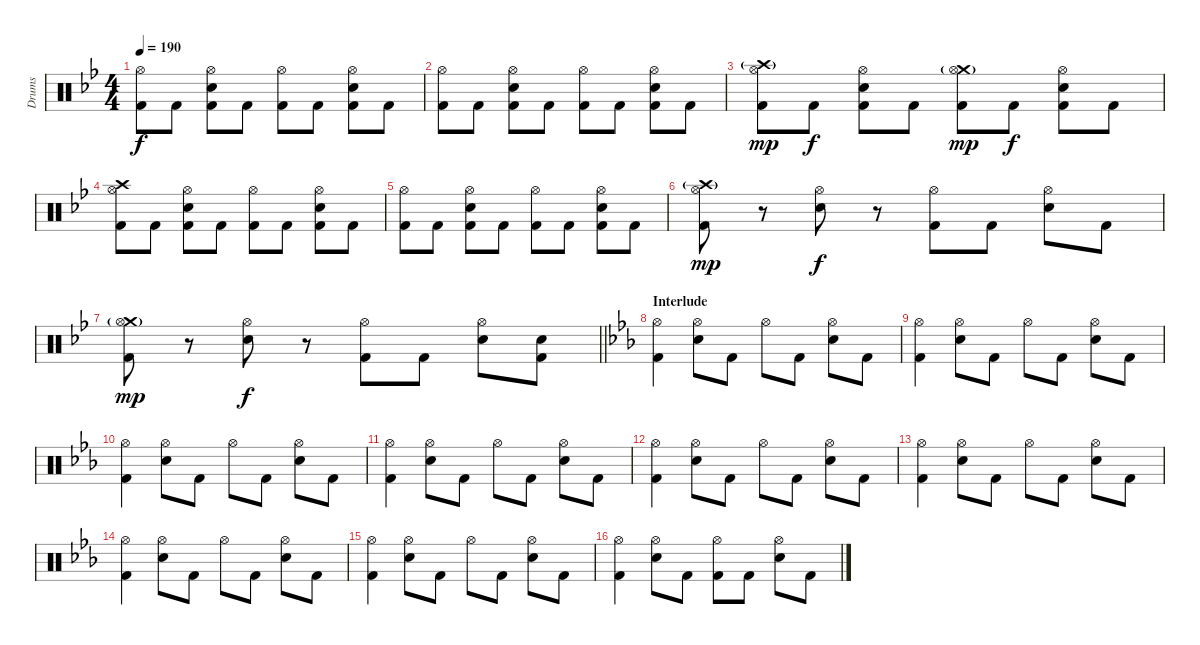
\track ("Drums" "Drums") {instrument percussion}
\staff {score}
\articulation defaults
\ts (4 4)
\tempo 190
\clef neutral
\ks gminor
("Hi-Hat (open)" "Kick (hit) 2").8{dy f} "Kick (hit) 2".8 ("Hi-Hat (open)" "Electric Snare (hit)" "Kick (hit) 2").8 "Kick (hit) 2".8 ("Hi-Hat (open)" "Kick (hit) 2").8 "Kick (hit) 2".8 ("Hi-Hat (open)" "Electric Snare (hit)" "Kick (hit) 2").8 "Kick (hit) 2".8 |
("Hi-Hat (open)" "Kick (hit) 2").8 "Kick (hit) 2".8 ("Hi-Hat (open)" "Electric Snare (hit)" "Kick (hit) 2").8 "Kick (hit) 2".8 ("Hi-Hat (open)" "Kick (hit) 2").8 "Kick (hit) 2".8 ("Hi-Hat (open)" "Electric Snare (hit)" "Kick (hit) 2").8 "Kick (hit) 2".8 |
("Crash high (hit)"{g} "Hi-Hat (open)" "Kick (hit) 2").8{dy mp} "Kick (hit) 2".8{dy f} ("Hi-Hat (open)" "Electric Snare (hit)" "Kick (hit) 2").8 "Kick (hit) 2".8 ("Crash medium (hit)"{g} "Hi-Hat (open)" "Kick (hit) 2").8{dy mp} "Kick (hit) 2".8{dy f} ("Hi-Hat (open)" "Electric Snare (hit)" "Kick (hit) 2").8 "Kick (hit) 2".8 |
("Crash high (hit)" "Hi-Hat (open)" "Kick (hit) 2").8 "Kick (hit) 2".8 ("Hi-Hat (open)" "Electric Snare (hit)" "Kick (hit) 2").8 "Kick (hit) 2".8 ("Hi-Hat (open)" "Kick (hit) 2").8 "Kick (hit) 2".8 ("Hi-Hat (open)" "Electric Snare (hit)" "Kick (hit) 2").8 "Kick (hit) 2".8 |
("Hi-Hat (open)" "Kick (hit) 2").8 "Kick (hit) 2".8 ("Hi-Hat (open)" "Electric Snare (hit)" "Kick (hit) 2").8 "Kick (hit) 2".8 ("Hi-Hat (open)" "Kick (hit) 2").8 "Kick (hit) 2".8 ("Hi-Hat (open)" "Electric Snare (hit)" "Kick (hit) 2").8 "Kick (hit) 2".8 |
("Crash high (hit)"{g} "Hi-Hat (open)" "Kick (hit) 2").8{dy mp} r.8 ("Hi-Hat (open)" "Electric Snare (hit)").8{dy f} r.8 ("Hi-Hat (open)" "Kick (hit) 2").8 "Kick (hit) 2".8 ("Hi-Hat (open)" "Electric Snare (hit)").8 "Kick (hit) 2".8 |
\barLineRight lightlight
("Crash medium (hit)"{g} "Hi-Hat (open)" "Kick (hit) 2").8{dy mp} r.8 ("Hi-Hat (open)" "Electric Snare (hit)").8{dy f} r.8 ("Hi-Hat (open)" "Kick (hit) 2").8 "Kick (hit) 2".8 ("Hi-Hat (open)" "Electric Snare (hit)").8 ("Electric Snare (hit)" "Kick (hit) 2").8 |
\section ("" "Interlude")
\ks cminor
("Hi-Hat (open)" "Kick (hit) 2").4 ("Hi-Hat (open)" "Electric Snare (hit)").8 "Kick (hit) 2".8 "Hi-Hat (open)".8 "Kick (hit) 2".8 ("Hi-Hat (open)" "Electric Snare (hit)").8 "Kick (hit) 2".8 |
("Hi-Hat (open)" "Kick (hit) 2").4 ("Hi-Hat (open)" "Electric Snare (hit)").8 "Kick (hit) 2".8 "Hi-Hat (open)".8 "Kick (hit) 2".8 ("Hi-Hat (open)" "Electric Snare (hit)").8 "Kick (hit) 2".8 |
("Hi-Hat (open)" "Kick (hit) 2").4 ("Hi-Hat (open)" "Electric Snare (hit)").8 "Kick (hit) 2".8 "Hi-Hat (open)".8 "Kick (hit) 2".8 ("Hi-Hat (open)" "Electric Snare (hit)").8 "Kick (hit) 2".8 |
("Hi-Hat (open)" "Kick (hit) 2").4 ("Hi-Hat (open)" "Electric Snare (hit)").8 "Kick (hit) 2".8 "Hi-Hat (open)".8 "Kick (hit) 2".8 ("Hi-Hat (open)" "Electric Snare (hit)").8 "Kick (hit) 2".8 |
("Hi-Hat (open)" "Kick (hit) 2").4 ("Hi-Hat (open)" "Electric Snare (hit)").8 "Kick (hit) 2".8 "Hi-Hat (open)".8 "Kick (hit) 2".8 ("Hi-Hat (open)" "Electric Snare (hit)").8 "Kick (hit) 2".8 |
("Hi-Hat (open)" "Kick (hit) 2").4 ("Hi-Hat (open)" "Electric Snare (hit)").8 "Kick (hit) 2".8 "Hi-Hat (open)".8 "Kick (hit) 2".8 ("Hi-Hat (open)" "Electric Snare (hit)").8 "Kick (hit) 2".8 |
("Hi-Hat (open)" "Kick (hit) 2").4 ("Hi-Hat (open)" "Electric Snare (hit)").8 "Kick (hit) 2".8 "Hi-Hat (open)".8 "Kick (hit) 2".8 ("Hi-Hat (open)" "Electric Snare (hit)").8 "Kick (hit) 2".8 |
("Hi-Hat (open)" "Kick (hit) 2").4 ("Hi-Hat (open)" "Electric Snare (hit)").8 "Kick (hit) 2".8 "Hi-Hat (open)".8 "Kick (hit) 2".8 ("Hi-Hat (open)" "Electric Snare (hit)").8 "Kick (hit) 2".8 |
("Hi-Hat (open)" "Kick (hit) 2").4 ("Hi-Hat (open)" "Electric Snare (hit)").8 "Kick (hit) 2".8 ("Hi-Hat (open)" "Kick (hit) 2").8 "Kick (hit) 2".8 ("Hi-Hat (open)" "Electric Snare (hit)").8 "Kick (hit) 2".8
